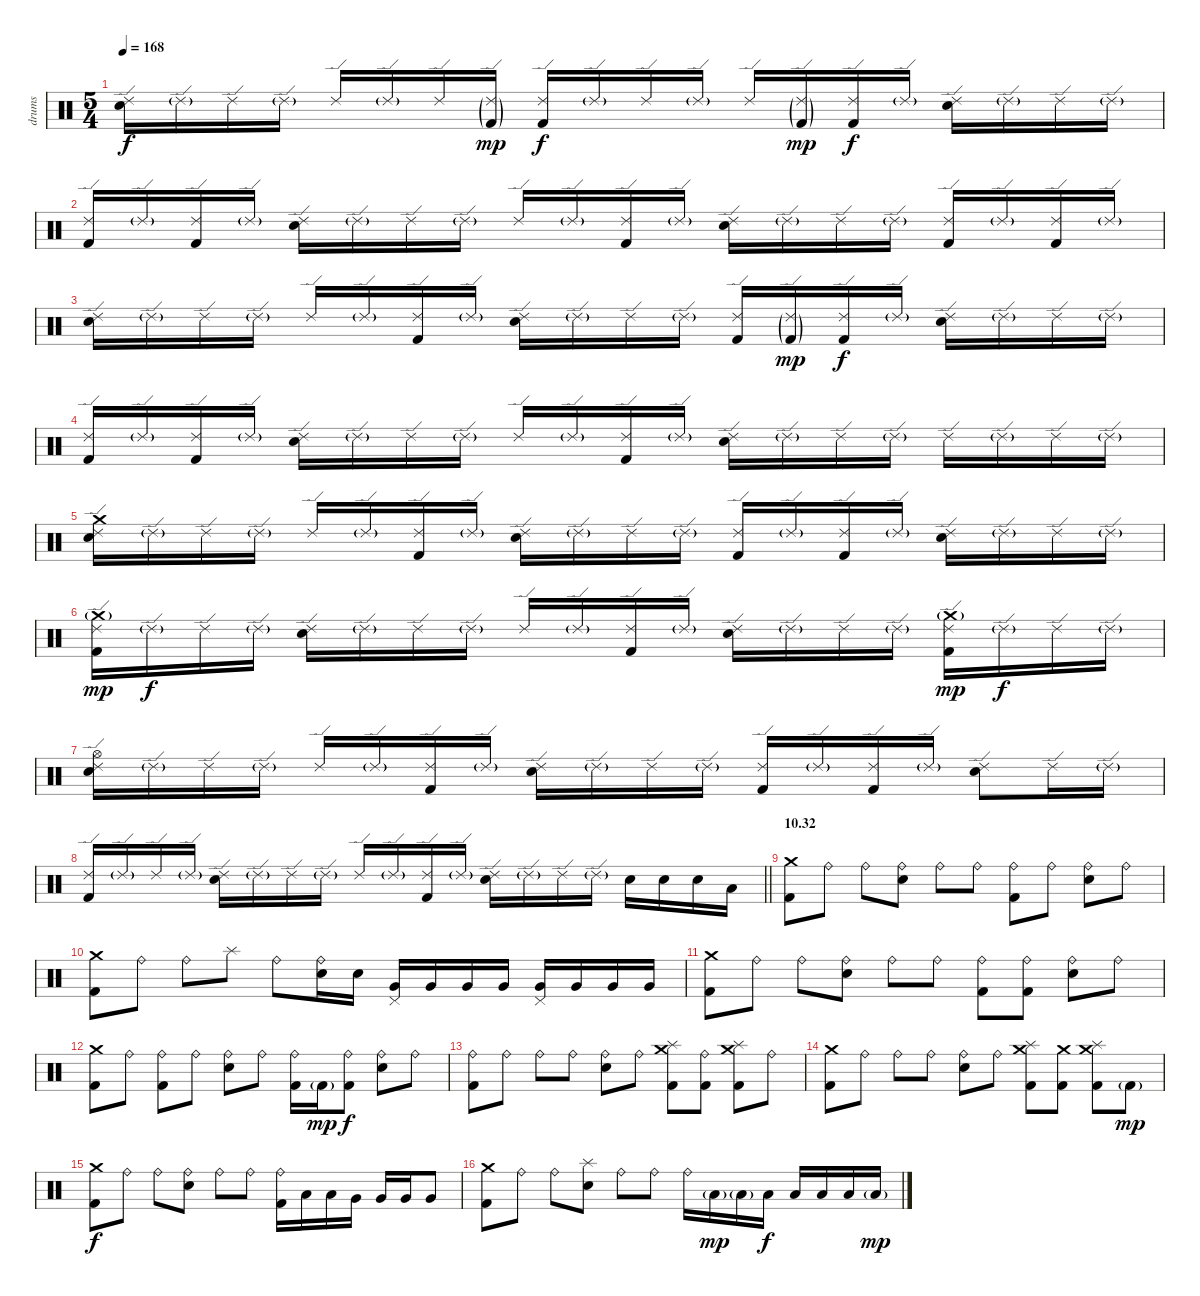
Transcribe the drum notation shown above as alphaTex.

\track ("drums" "drums") {instrument percussion}
\staff {score}
\articulation defaults
\ts (5 4)
\tempo 168
\clef neutral
\ks c
("Ride (edge) 2" "Electric Snare (hit)").16{dy f} "Ride (edge) 2"{g}.16 "Ride (edge) 2".16 "Ride (edge) 2"{g}.16 "Ride (edge) 2".16 "Ride (edge) 2"{g}.16 "Ride (edge) 2".16 ("Ride (edge) 2"{g} "Kick (hit) 2"{g}).16{dy mp} ("Ride (edge) 2" "Kick (hit) 2").16{dy f} "Ride (edge) 2"{g}.16 "Ride (edge) 2".16 "Ride (edge) 2"{g}.16 "Ride (edge) 2".16 ("Ride (edge) 2"{g} "Kick (hit) 2"{g}).16{dy mp} ("Ride (edge) 2" "Kick (hit) 2").16{dy f} "Ride (edge) 2"{g}.16 ("Ride (edge) 2" "Electric Snare (hit)").16 "Ride (edge) 2"{g}.16 "Ride (edge) 2".16 "Ride (edge) 2"{g}.16 |
("Ride (edge) 2" "Kick (hit) 2").16 "Ride (edge) 2"{g}.16 ("Ride (edge) 2" "Kick (hit) 2").16 "Ride (edge) 2"{g}.16 ("Ride (edge) 2" "Electric Snare (hit)").16 "Ride (edge) 2"{g}.16 "Ride (edge) 2".16 "Ride (edge) 2"{g}.16 "Ride (edge) 2".16 "Ride (edge) 2"{g}.16 ("Ride (edge) 2" "Kick (hit) 2").16 "Ride (edge) 2"{g}.16 ("Ride (edge) 2" "Electric Snare (hit)").16 "Ride (edge) 2"{g}.16 "Ride (edge) 2".16 "Ride (edge) 2"{g}.16 ("Ride (edge) 2" "Kick (hit) 2").16 "Ride (edge) 2"{g}.16 ("Ride (edge) 2" "Kick (hit) 2").16 "Ride (edge) 2"{g}.16 |
("Ride (edge) 2" "Electric Snare (hit)").16 "Ride (edge) 2"{g}.16 "Ride (edge) 2".16 "Ride (edge) 2"{g}.16 "Ride (edge) 2".16 "Ride (edge) 2"{g}.16 ("Ride (edge) 2" "Kick (hit) 2").16 "Ride (edge) 2"{g}.16 ("Ride (edge) 2" "Electric Snare (hit)").16 "Ride (edge) 2"{g}.16 "Ride (edge) 2".16 "Ride (edge) 2"{g}.16 ("Ride (edge) 2" "Kick (hit) 2").16 ("Ride (edge) 2"{g} "Kick (hit) 2"{g}).16{dy mp} ("Ride (edge) 2" "Kick (hit) 2").16{dy f} "Ride (edge) 2"{g}.16 ("Ride (edge) 2" "Electric Snare (hit)").16 "Ride (edge) 2"{g}.16 "Ride (edge) 2".16 "Ride (edge) 2"{g}.16 |
("Ride (edge) 2" "Kick (hit) 2").16 "Ride (edge) 2"{g}.16 ("Ride (edge) 2" "Kick (hit) 2").16 "Ride (edge) 2"{g}.16 ("Ride (edge) 2" "Electric Snare (hit)").16 "Ride (edge) 2"{g}.16 "Ride (edge) 2".16 "Ride (edge) 2"{g}.16 "Ride (edge) 2".16 "Ride (edge) 2"{g}.16 ("Ride (edge) 2" "Kick (hit) 2").16 "Ride (edge) 2"{g}.16 ("Ride (edge) 2" "Electric Snare (hit)").16 "Ride (edge) 2"{g}.16 "Ride (edge) 2".16 "Ride (edge) 2"{g}.16 "Ride (edge) 2".16 "Ride (edge) 2"{g}.16 "Ride (edge) 2".16 "Ride (edge) 2"{g}.16 |
("Ride (edge) 2" "Crash medium (hit)" "Electric Snare (hit)").16 "Ride (edge) 2"{g}.16 "Ride (edge) 2".16 "Ride (edge) 2"{g}.16 "Ride (edge) 2".16 "Ride (edge) 2"{g}.16 ("Ride (edge) 2" "Kick (hit) 2").16 "Ride (edge) 2"{g}.16 ("Ride (edge) 2" "Electric Snare (hit)").16 "Ride (edge) 2"{g}.16 "Ride (edge) 2".16 "Ride (edge) 2"{g}.16 ("Ride (edge) 2" "Kick (hit) 2").16 "Ride (edge) 2"{g}.16 ("Ride (edge) 2" "Kick (hit) 2").16 "Ride (edge) 2"{g}.16 ("Ride (edge) 2" "Electric Snare (hit)").16 "Ride (edge) 2"{g}.16 "Ride (edge) 2".16 "Ride (edge) 2"{g}.16 |
("Ride (edge) 2" "Crash medium (hit)"{g} "Kick (hit) 2").16{dy mp} "Ride (edge) 2"{g}.16{dy f} "Ride (edge) 2".16 "Ride (edge) 2"{g}.16 ("Ride (edge) 2" "Electric Snare (hit)").16 "Ride (edge) 2"{g}.16 "Ride (edge) 2".16 "Ride (edge) 2"{g}.16 "Ride (edge) 2".16 "Ride (edge) 2"{g}.16 ("Ride (edge) 2" "Kick (hit) 2").16 "Ride (edge) 2"{g}.16 ("Ride (edge) 2" "Electric Snare (hit)").16 "Ride (edge) 2"{g}.16 "Ride (edge) 2".16 "Ride (edge) 2"{g}.16 ("Ride (edge) 2" "Crash medium (hit)"{g} "Kick (hit) 2").16{dy mp} "Ride (edge) 2"{g}.16{dy f} "Ride (edge) 2".16 "Ride (edge) 2"{g}.16 |
("Ride (edge) 2" "Hi-Hat (open)" "Electric Snare (hit)").16 "Ride (edge) 2"{g}.16 "Ride (edge) 2".16 "Ride (edge) 2"{g}.16 "Ride (edge) 2".16 "Ride (edge) 2"{g}.16 ("Ride (edge) 2" "Kick (hit) 2").16 "Ride (edge) 2"{g}.16 ("Ride (edge) 2" "Electric Snare (hit)").16 "Ride (edge) 2"{g}.16 "Ride (edge) 2".16 "Ride (edge) 2"{g}.16 ("Ride (edge) 2" "Kick (hit) 2").16 "Ride (edge) 2"{g}.16 ("Ride (edge) 2" "Kick (hit) 2").16 "Ride (edge) 2"{g}.16 ("Ride (edge) 2" "Electric Snare (hit)").8 "Ride (edge) 2".16 "Ride (edge) 2"{g}.16 |
\barLineRight lightlight
("Ride (edge) 2" "Kick (hit) 2").16 "Ride (edge) 2"{g}.16 "Ride (edge) 2".16 "Ride (edge) 2"{g}.16 ("Ride (edge) 2" "Electric Snare (hit)").16 "Ride (edge) 2"{g}.16 "Ride (edge) 2".16 "Ride (edge) 2"{g}.16 "Ride (edge) 2".16 "Ride (edge) 2"{g}.16 ("Ride (edge) 2" "Kick (hit) 2").16 "Ride (edge) 2"{g}.16 ("Ride (edge) 2" "Electric Snare (hit)").16 "Ride (edge) 2"{g}.16 "Ride (edge) 2".16 "Ride (edge) 2"{g}.16 "Electric Snare (hit)".16 "Electric Snare (hit)".16 "Electric Snare (hit)".16 "Low Tom (hit)".16 |
\section ("" "10.32")
("Crash medium (hit)" "Kick (hit) 2").8 "Ride (bell)".8 "Ride (bell)".8 ("Ride (bell)" "Electric Snare (hit)").8 "Ride (bell)".8 "Ride (bell)".8 ("Ride (bell)" "Kick (hit) 2").8 "Ride (bell)".8 ("Ride (bell)" "Electric Snare (hit)").8 "Ride (bell)".8 |
("Crash medium (hit)" "Kick (hit) 2").8 "Ride (bell)".8 "Ride (bell)".8 "Splash (hit)".8 "Ride (bell)".8 ("Ride (bell)" "Electric Snare (hit)").16 "Electric Snare (hit)".16 ("Pedal Hi-Hat (hit)" "Very Low Tom (hit)").16 "Very Low Tom (hit)".16 "Very Low Tom (hit)".16 "Very Low Tom (hit)".16 ("Pedal Hi-Hat (hit)" "Very Low Tom (hit)").16 "Very Low Tom (hit)".16 "Very Low Tom (hit)".16 "Very Low Tom (hit)".16 |
("Crash medium (hit)" "Kick (hit) 2").8 "Ride (bell)".8 "Ride (bell)".8 ("Ride (bell)" "Electric Snare (hit)").8 "Ride (bell)".8 "Ride (bell)".8 ("Ride (bell)" "Kick (hit) 2").8 ("Ride (bell)" "Kick (hit) 2").8 ("Ride (bell)" "Electric Snare (hit)").8 "Ride (bell)".8 |
("Crash medium (hit)" "Kick (hit) 2").8 "Ride (bell)".8 ("Ride (bell)" "Kick (hit) 2").8 "Ride (bell)".8 ("Ride (bell)" "Electric Snare (hit)").8 "Ride (bell)".8 ("Ride (bell)" "Kick (hit) 2").16 "Kick (hit) 2"{g}.16{dy mp} ("Ride (bell)" "Kick (hit) 2").8{dy f} ("Ride (bell)" "Electric Snare (hit)").8 "Ride (bell)".8 |
("Ride (bell)" "Kick (hit) 2").8 "Ride (bell)".8 "Ride (bell)".8 "Ride (bell)".8 ("Ride (bell)" "Electric Snare (hit)").8 "Ride (bell)".8 ("Crash medium (hit)" "Splash (hit)" "Kick (hit) 2").8 ("Ride (bell)" "Kick (hit) 2").8 ("Crash medium (hit)" "Splash (hit)" "Kick (hit) 2").8 "Ride (bell)".8 |
("Crash medium (hit)" "Kick (hit) 2").8 "Ride (bell)".8 "Ride (bell)".8 "Ride (bell)".8 ("Ride (bell)" "Electric Snare (hit)").8 "Ride (bell)".8 ("Crash medium (hit)" "Splash (hit)" "Kick (hit) 2").8 ("Crash medium (hit)" "Kick (hit) 2").8 ("Crash medium (hit)" "Splash (hit)" "Kick (hit) 2").8 "Kick (hit) 2"{g}.8{dy mp} |
("Crash medium (hit)" "Kick (hit) 2").8{dy f} "Ride (bell)".8 "Ride (bell)".8 ("Ride (bell)" "Electric Snare (hit)").8 "Ride (bell)".8 "Ride (bell)".8 ("Ride (bell)" "Kick (hit) 2").16 "Low Tom (hit)".16 "Low Tom (hit)".16 "Very Low Tom (hit)".16 "Very Low Tom (hit)".16 "Very Low Tom (hit)".16 "Very Low Tom (hit)".8 |
("Crash medium (hit)" "Kick (hit) 2").8 "Ride (bell)".8 "Ride (bell)".8 ("Splash (hit)" "Electric Snare (hit)").8 "Ride (bell)".8 "Ride (bell)".8 "Ride (bell)".16 "Low Tom (hit)"{g}.16{dy mp} "Low Tom (hit)"{g}.16 "Low Tom (hit)".16{dy f} "Low Tom (hit)".16 "Low Tom (hit)".16 "Low Tom (hit)".16 "Low Tom (hit)"{g}.16{dy mp}
